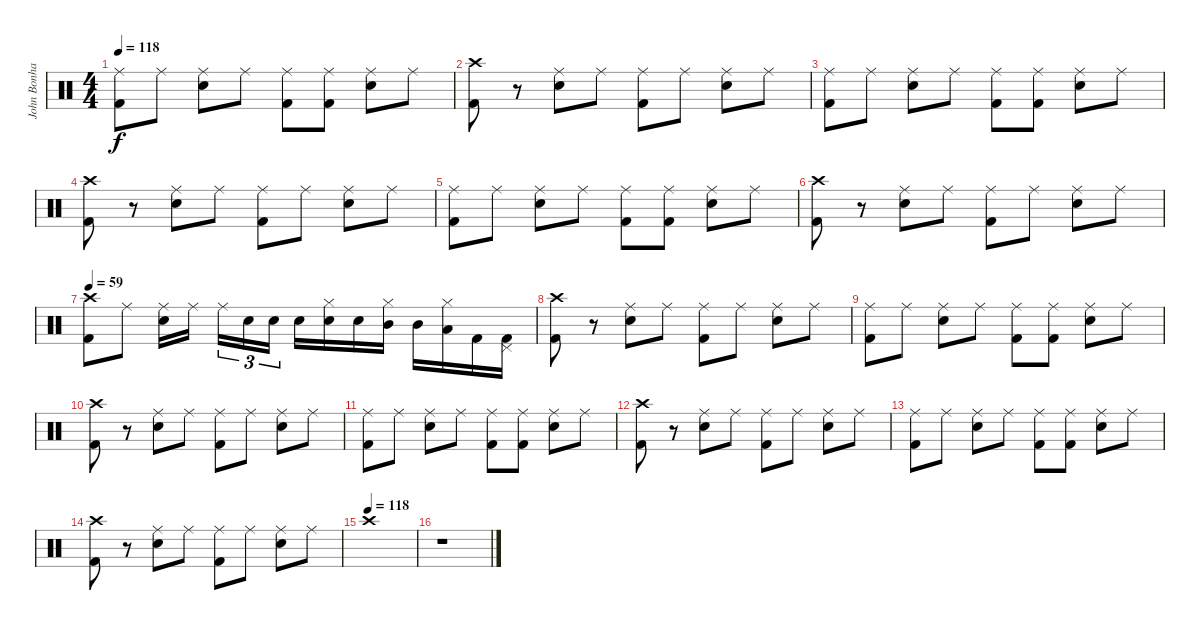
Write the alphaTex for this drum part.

\track ("John Bonham (Bateria)" "John Bonha") {instrument percussion}
\staff {score}
\articulation defaults
\ts (4 4)
\tempo 118
\clef neutral
\ks c
("Ride (middle)" "Kick (hit) 2").8{dy f} "Ride (middle)".8 ("Snare (hit) 2" "Ride (middle)").8 "Ride (middle)".8 ("Ride (middle)" "Kick (hit) 2").8 ("Ride (middle)" "Kick (hit) 2").8 ("Ride (middle)" "Snare (hit) 2").8 "Ride (middle)".8 |
("Crash high (hit)" "Kick (hit) 2").8 r.8 ("Snare (hit) 2" "Ride (middle)").8 "Ride (middle)".8 ("Ride (middle)" "Kick (hit) 2").8 "Ride (middle)".8 ("Ride (middle)" "Snare (hit) 2").8 "Ride (middle)".8 |
("Ride (middle)" "Kick (hit) 2").8 "Ride (middle)".8 ("Snare (hit) 2" "Ride (middle)").8 "Ride (middle)".8 ("Ride (middle)" "Kick (hit) 2").8 ("Ride (middle)" "Kick (hit) 2").8 ("Ride (middle)" "Snare (hit) 2").8 "Ride (middle)".8 |
("Crash high (hit)" "Kick (hit) 2").8 r.8 ("Snare (hit) 2" "Ride (middle)").8 "Ride (middle)".8 ("Ride (middle)" "Kick (hit) 2").8 "Ride (middle)".8 ("Ride (middle)" "Snare (hit) 2").8 "Ride (middle)".8 |
("Ride (middle)" "Kick (hit) 2").8 "Ride (middle)".8 ("Snare (hit) 2" "Ride (middle)").8 "Ride (middle)".8 ("Ride (middle)" "Kick (hit) 2").8 ("Ride (middle)" "Kick (hit) 2").8 ("Ride (middle)" "Snare (hit) 2").8 "Ride (middle)".8 |
("Crash high (hit)" "Kick (hit) 2").8 r.8 ("Snare (hit) 2" "Ride (middle)").8 "Ride (middle)".8 ("Ride (middle)" "Kick (hit) 2").8 "Ride (middle)".8 ("Ride (middle)" "Snare (hit) 2").8 "Ride (middle)".8 |
\tempo 59
("Crash high (hit)" "Kick (hit) 2").8 "Ride (middle)".8 ("Snare (hit) 2" "Ride (middle)").16 "Ride (middle)".16{beam splitsecondary} "Ride (middle)".16{tu (3 2)} "Snare (hit) 2".16{tu (3 2)} "Snare (hit) 2".16{tu (3 2)} "Snare (hit) 2".16 ("Snare (hit) 2" "Hi-Hat (closed)").16 "Snare (hit) 2".16 ("Mid Tom (hit)" "Hi-Hat (closed)").16 "Mid Tom (hit)".16 ("Low Floor Tom (hit)" "Hi-Hat (closed)").16 "Kick (hit) 2".16 ("Pedal Hi-Hat (hit)" "Kick (hit) 2").16 |
("Crash high (hit)" "Kick (hit) 2").8 r.8 ("Snare (hit) 2" "Ride (middle)").8 "Ride (middle)".8 ("Ride (middle)" "Kick (hit) 2").8 "Ride (middle)".8 ("Ride (middle)" "Snare (hit) 2").8 "Ride (middle)".8 |
("Ride (middle)" "Kick (hit) 2").8 "Ride (middle)".8 ("Snare (hit) 2" "Ride (middle)").8 "Ride (middle)".8 ("Ride (middle)" "Kick (hit) 2").8 ("Ride (middle)" "Kick (hit) 2").8 ("Ride (middle)" "Snare (hit) 2").8 "Ride (middle)".8 |
("Crash high (hit)" "Kick (hit) 2").8 r.8 ("Snare (hit) 2" "Ride (middle)").8 "Ride (middle)".8 ("Ride (middle)" "Kick (hit) 2").8 "Ride (middle)".8 ("Ride (middle)" "Snare (hit) 2").8 "Ride (middle)".8 |
("Ride (middle)" "Kick (hit) 2").8 "Ride (middle)".8 ("Snare (hit) 2" "Ride (middle)").8 "Ride (middle)".8 ("Ride (middle)" "Kick (hit) 2").8 ("Ride (middle)" "Kick (hit) 2").8 ("Ride (middle)" "Snare (hit) 2").8 "Ride (middle)".8 |
("Crash high (hit)" "Kick (hit) 2").8 r.8 ("Snare (hit) 2" "Ride (middle)").8 "Ride (middle)".8 ("Ride (middle)" "Kick (hit) 2").8 "Ride (middle)".8 ("Ride (middle)" "Snare (hit) 2").8 "Ride (middle)".8 |
("Ride (middle)" "Kick (hit) 2").8 "Ride (middle)".8 ("Snare (hit) 2" "Ride (middle)").8 "Ride (middle)".8 ("Ride (middle)" "Kick (hit) 2").8 ("Ride (middle)" "Kick (hit) 2").8 ("Ride (middle)" "Snare (hit) 2").8 "Ride (middle)".8 |
("Crash high (hit)" "Kick (hit) 2").8 r.8 ("Snare (hit) 2" "Ride (middle)").8 "Ride (middle)".8 ("Ride (middle)" "Kick (hit) 2").8 "Ride (middle)".8 ("Ride (middle)" "Snare (hit) 2").8 "Ride (middle)".8 |
\tempo (118)
"Crash high (hit)".1 |
r.1
